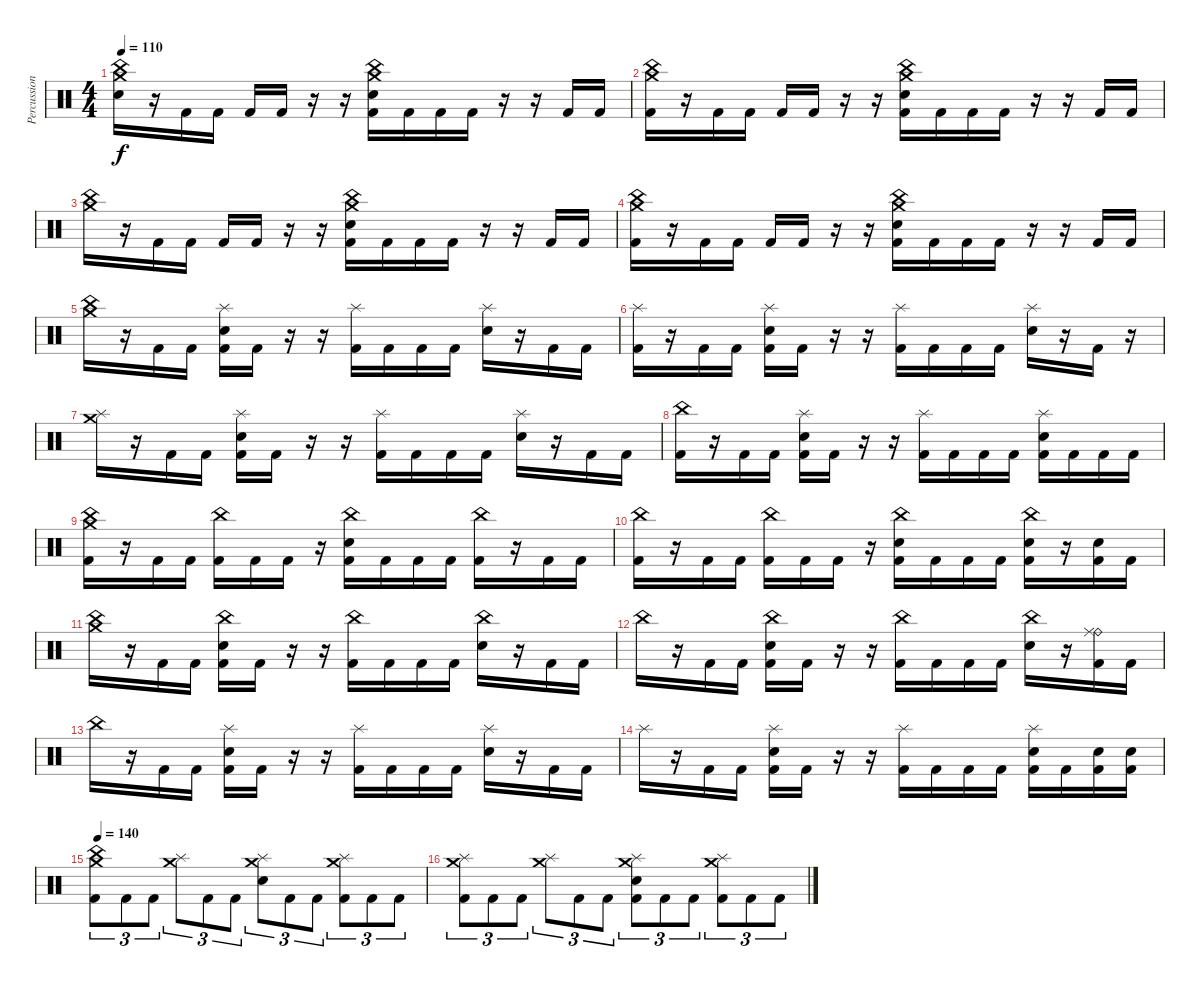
\track ("Percussion" "Percussion") {instrument percussion}
\staff {score}
\articulation defaults
\ts (4 4)
\tempo 110
\clef neutral
\ks c
("China (hit)" "Crash medium (hit)" "Snare (hit) 2").16{dy f} r.16 "Kick (hit) 2".16 "Kick (hit) 2".16 "Kick (hit) 2".16 "Kick (hit) 2".16 r.16 r.16 ("China (hit)" "Crash medium (hit)" "Snare (hit) 2" "Kick (hit) 2").16 "Kick (hit) 2".16 "Kick (hit) 2".16 "Kick (hit) 2".16 r.16 r.16 "Kick (hit) 2".16 "Kick (hit) 2".16 |
("China (hit)" "Crash medium (hit)" "Kick (hit) 2").16 r.16 "Kick (hit) 2".16 "Kick (hit) 2".16 "Kick (hit) 2".16 "Kick (hit) 2".16 r.16 r.16 ("China (hit)" "Crash medium (hit)" "Snare (hit) 2" "Kick (hit) 2").16 "Kick (hit) 2".16 "Kick (hit) 2".16 "Kick (hit) 2".16 r.16 r.16 "Kick (hit) 2".16 "Kick (hit) 2".16 |
("China (hit)" "Crash medium (hit)").16 r.16 "Kick (hit) 2".16 "Kick (hit) 2".16 "Kick (hit) 2".16 "Kick (hit) 2".16 r.16 r.16 ("China (hit)" "Crash medium (hit)" "Snare (hit) 2" "Kick (hit) 2").16 "Kick (hit) 2".16 "Kick (hit) 2".16 "Kick (hit) 2".16 r.16 r.16 "Kick (hit) 2".16 "Kick (hit) 2".16 |
("China (hit)" "Crash medium (hit)" "Kick (hit) 2").16 r.16 "Kick (hit) 2".16 "Kick (hit) 2".16 "Kick (hit) 2".16 "Kick (hit) 2".16 r.16 r.16 ("China (hit)" "Crash medium (hit)" "Snare (hit) 2" "Kick (hit) 2").16 "Kick (hit) 2".16 "Kick (hit) 2".16 "Kick (hit) 2".16 r.16 r.16 "Kick (hit) 2".16 "Kick (hit) 2".16 |
("China (hit)" "Crash medium (hit)").16 r.16 "Kick (hit) 2".16 "Kick (hit) 2".16 ("Splash (hit)" "Snare (hit) 2" "Kick (hit) 2").16 "Kick (hit) 2".16 r.16 r.16 ("Splash (hit)" "Kick (hit) 2").16 "Kick (hit) 2".16 "Kick (hit) 2".16 "Kick (hit) 2".16 ("Splash (hit)" "Snare (hit) 2").16 r.16 "Kick (hit) 2".16 "Kick (hit) 2".16 |
("Splash (hit)" "Kick (hit) 2").16 r.16 "Kick (hit) 2".16 "Kick (hit) 2".16 ("Splash (hit)" "Snare (hit) 2" "Kick (hit) 2").16 "Kick (hit) 2".16 r.16 r.16 ("Splash (hit)" "Kick (hit) 2").16 "Kick (hit) 2".16 "Kick (hit) 2".16 "Kick (hit) 2".16 ("Splash (hit)" "Snare (hit) 2").16 r.16 "Kick (hit) 2".16 r.16 |
("Splash (hit)" "Crash medium (hit)").16 r.16 "Kick (hit) 2".16 "Kick (hit) 2".16 ("Splash (hit)" "Snare (hit) 2" "Kick (hit) 2").16 "Kick (hit) 2".16 r.16 r.16 ("Splash (hit)" "Kick (hit) 2").16 "Kick (hit) 2".16 "Kick (hit) 2".16 "Kick (hit) 2".16 ("Splash (hit)" "Snare (hit) 2").16 r.16 "Kick (hit) 2".16 "Kick (hit) 2".16 |
("China (hit)" "Kick (hit) 2").16 r.16 "Kick (hit) 2".16 "Kick (hit) 2".16 ("Splash (hit)" "Snare (hit) 2" "Kick (hit) 2").16 "Kick (hit) 2".16 r.16 r.16 ("Splash (hit)" "Kick (hit) 2").16 "Kick (hit) 2".16 "Kick (hit) 2".16 "Kick (hit) 2".16 ("Splash (hit)" "Snare (hit) 2" "Kick (hit) 2").16 "Kick (hit) 2".16 "Kick (hit) 2".16 "Kick (hit) 2".16 |
("China (hit)" "Crash medium (hit)" "Kick (hit) 2").16 r.16 "Kick (hit) 2".16 "Kick (hit) 2".16 ("China (hit)" "Kick (hit) 2").16 "Kick (hit) 2".16 "Kick (hit) 2".16 r.16 ("China (hit)" "Snare (hit) 2" "Kick (hit) 2").16 "Kick (hit) 2".16 "Kick (hit) 2".16 "Kick (hit) 2".16 ("China (hit)" "Kick (hit) 2").16 r.16 "Kick (hit) 2".16 "Kick (hit) 2".16 |
("China (hit)" "Kick (hit) 2").16 r.16 "Kick (hit) 2".16 "Kick (hit) 2".16 ("China (hit)" "Kick (hit) 2").16 "Kick (hit) 2".16 "Kick (hit) 2".16 r.16 ("China (hit)" "Snare (hit) 2" "Kick (hit) 2").16 "Kick (hit) 2".16 "Kick (hit) 2".16 "Kick (hit) 2".16 ("China (hit)" "Snare (hit) 2" "Kick (hit) 2").16 r.16 ("Snare (hit) 2" "Kick (hit) 2").16 "Kick (hit) 2".16 |
("China (hit)" "Crash medium (hit)").16 r.16 "Kick (hit) 2".16 "Kick (hit) 2".16 ("China (hit)" "Snare (hit) 2" "Kick (hit) 2").16 "Kick (hit) 2".16 r.16 r.16 ("China (hit)" "Kick (hit) 2").16 "Kick (hit) 2".16 "Kick (hit) 2".16 "Kick (hit) 2".16 ("China (hit)" "Snare (hit) 2").16 r.16 "Kick (hit) 2".16 "Kick (hit) 2".16 |
"China (hit)".16 r.16 "Kick (hit) 2".16 "Kick (hit) 2".16 ("China (hit)" "Snare (hit) 2" "Kick (hit) 2").16 "Kick (hit) 2".16 r.16 r.16 ("China (hit)" "Kick (hit) 2").16 "Kick (hit) 2".16 "Kick (hit) 2".16 "Kick (hit) 2".16 ("China (hit)" "Snare (hit) 2").16 r.16 ("Ride (bell)" "Ride (middle)" "Kick (hit) 2").16 "Kick (hit) 2".16 |
"China (hit)".16 r.16 "Kick (hit) 2".16 "Kick (hit) 2".16 ("Splash (hit)" "Snare (hit) 2" "Kick (hit) 2").16 "Kick (hit) 2".16 r.16 r.16 ("Splash (hit)" "Kick (hit) 2").16 "Kick (hit) 2".16 "Kick (hit) 2".16 "Kick (hit) 2".16 ("Splash (hit)" "Snare (hit) 2").16 r.16 "Kick (hit) 2".16 "Kick (hit) 2".16 |
"Splash (hit)".16 r.16 "Kick (hit) 2".16 "Kick (hit) 2".16 ("Splash (hit)" "Snare (hit) 2" "Kick (hit) 2").16 "Kick (hit) 2".16 r.16 r.16 ("Splash (hit)" "Kick (hit) 2").16 "Kick (hit) 2".16 "Kick (hit) 2".16 "Kick (hit) 2".16 ("Splash (hit)" "Snare (hit) 2" "Kick (hit) 2").16 "Kick (hit) 2".16 ("Snare (hit) 2" "Kick (hit) 2").16 ("Snare (hit) 2" "Kick (hit) 2").16 |
\tempo 140
("China (hit)" "Crash medium (hit)" "Kick (hit) 2").8{tu (3 2)} "Kick (hit) 2".8{tu (3 2)} "Kick (hit) 2".8{tu (3 2)} ("Splash (hit)" "Crash medium (hit)").8{tu (3 2)} "Kick (hit) 2".8{tu (3 2)} "Kick (hit) 2".8{tu (3 2)} ("Splash (hit)" "Crash medium (hit)" "Snare (hit) 2").8{tu (3 2)} "Kick (hit) 2".8{tu (3 2)} "Kick (hit) 2".8{tu (3 2)} ("Splash (hit)" "Crash medium (hit)" "Kick (hit) 2").8{tu (3 2)} "Kick (hit) 2".8{tu (3 2)} "Kick (hit) 2".8{tu (3 2)} |
("Splash (hit)" "Crash medium (hit)" "Kick (hit) 2").8{tu (3 2)} "Kick (hit) 2".8{tu (3 2)} "Kick (hit) 2".8{tu (3 2)} ("Splash (hit)" "Crash medium (hit)").8{tu (3 2)} "Kick (hit) 2".8{tu (3 2)} "Kick (hit) 2".8{tu (3 2)} ("Splash (hit)" "Crash medium (hit)" "Snare (hit) 2" "Kick (hit) 2").8{tu (3 2)} "Kick (hit) 2".8{tu (3 2)} "Kick (hit) 2".8{tu (3 2)} ("Splash (hit)" "Crash medium (hit)" "Kick (hit) 2").8{tu (3 2)} "Kick (hit) 2".8{tu (3 2)} "Kick (hit) 2".8{tu (3 2)}
